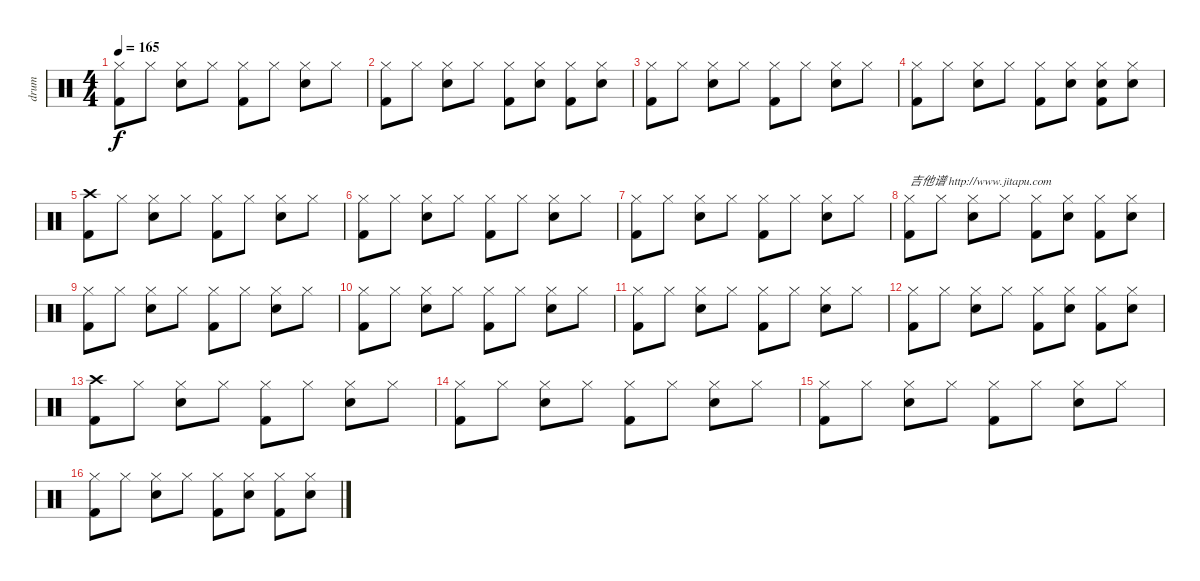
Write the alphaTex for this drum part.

\track ("drum" "drum") {instrument percussion}
\staff {score}
\articulation defaults
\ts (4 4)
\tempo 165
\clef neutral
\ks c
("Hi-Hat (closed)" "Kick (hit) 2").8{dy f} "Hi-Hat (closed)".8 ("Hi-Hat (closed)" "Snare (hit) 2").8 "Hi-Hat (closed)".8 ("Hi-Hat (closed)" "Kick (hit) 2").8 "Hi-Hat (closed)".8 ("Hi-Hat (closed)" "Snare (hit) 2").8 "Hi-Hat (closed)".8 |
("Hi-Hat (closed)" "Kick (hit) 2").8 "Hi-Hat (closed)".8 ("Hi-Hat (closed)" "Snare (hit) 2").8 "Hi-Hat (closed)".8 ("Hi-Hat (closed)" "Kick (hit) 2").8 ("Hi-Hat (closed)" "Snare (hit) 2").8 ("Hi-Hat (closed)" "Kick (hit) 2").8 ("Hi-Hat (closed)" "Snare (hit) 2").8 |
("Hi-Hat (closed)" "Kick (hit) 2").8 "Hi-Hat (closed)".8 ("Hi-Hat (closed)" "Snare (hit) 2").8 "Hi-Hat (closed)".8 ("Hi-Hat (closed)" "Kick (hit) 2").8 "Hi-Hat (closed)".8 ("Hi-Hat (closed)" "Snare (hit) 2").8 "Hi-Hat (closed)".8 |
("Hi-Hat (closed)" "Kick (hit) 2").8 "Hi-Hat (closed)".8 ("Hi-Hat (closed)" "Snare (hit) 2").8 "Hi-Hat (closed)".8 ("Hi-Hat (closed)" "Kick (hit) 2").8 ("Hi-Hat (closed)" "Snare (hit) 2").8 ("Hi-Hat (closed)" "Snare (hit) 2" "Kick (hit) 2").8 ("Hi-Hat (closed)" "Snare (hit) 2").8 |
("Crash high (hit)" "Kick (hit) 2").8 "Hi-Hat (closed)".8 ("Hi-Hat (closed)" "Snare (hit) 2").8 "Hi-Hat (closed)".8 ("Hi-Hat (closed)" "Kick (hit) 2").8 "Hi-Hat (closed)".8 ("Hi-Hat (closed)" "Snare (hit) 2").8 "Hi-Hat (closed)".8 |
("Hi-Hat (closed)" "Kick (hit) 2").8 "Hi-Hat (closed)".8 ("Hi-Hat (closed)" "Snare (hit) 2").8 "Hi-Hat (closed)".8 ("Hi-Hat (closed)" "Kick (hit) 2").8 "Hi-Hat (closed)".8 ("Hi-Hat (closed)" "Snare (hit) 2").8 "Hi-Hat (closed)".8 |
("Hi-Hat (closed)" "Kick (hit) 2").8 "Hi-Hat (closed)".8 ("Hi-Hat (closed)" "Snare (hit) 2").8 "Hi-Hat (closed)".8 ("Hi-Hat (closed)" "Kick (hit) 2").8 "Hi-Hat (closed)".8 ("Hi-Hat (closed)" "Snare (hit) 2").8 "Hi-Hat (closed)".8 |
("Hi-Hat (closed)" "Kick (hit) 2").8{txt "吉他谱 http://www.jitapu.com"} "Hi-Hat (closed)".8 ("Hi-Hat (closed)" "Snare (hit) 2").8 "Hi-Hat (closed)".8 ("Hi-Hat (closed)" "Kick (hit) 2").8 ("Hi-Hat (closed)" "Snare (hit) 2").8 ("Hi-Hat (closed)" "Kick (hit) 2").8 ("Hi-Hat (closed)" "Snare (hit) 2").8 |
("Hi-Hat (closed)" "Kick (hit) 2").8 "Hi-Hat (closed)".8 ("Hi-Hat (closed)" "Snare (hit) 2").8 "Hi-Hat (closed)".8 ("Hi-Hat (closed)" "Kick (hit) 2").8 "Hi-Hat (closed)".8 ("Hi-Hat (closed)" "Snare (hit) 2").8 "Hi-Hat (closed)".8 |
("Hi-Hat (closed)" "Kick (hit) 2").8 "Hi-Hat (closed)".8 ("Hi-Hat (closed)" "Snare (hit) 2").8 "Hi-Hat (closed)".8 ("Hi-Hat (closed)" "Kick (hit) 2").8 "Hi-Hat (closed)".8 ("Hi-Hat (closed)" "Snare (hit) 2").8 "Hi-Hat (closed)".8 |
("Hi-Hat (closed)" "Kick (hit) 2").8 "Hi-Hat (closed)".8 ("Hi-Hat (closed)" "Snare (hit) 2").8 "Hi-Hat (closed)".8 ("Hi-Hat (closed)" "Kick (hit) 2").8 "Hi-Hat (closed)".8 ("Hi-Hat (closed)" "Snare (hit) 2").8 "Hi-Hat (closed)".8 |
("Hi-Hat (closed)" "Kick (hit) 2").8 "Hi-Hat (closed)".8 ("Hi-Hat (closed)" "Snare (hit) 2").8 "Hi-Hat (closed)".8 ("Hi-Hat (closed)" "Kick (hit) 2").8 ("Hi-Hat (closed)" "Snare (hit) 2").8 ("Hi-Hat (closed)" "Kick (hit) 2").8 ("Hi-Hat (closed)" "Snare (hit) 2").8 |
("Crash high (hit)" "Kick (hit) 2").8 "Hi-Hat (closed)".8 ("Hi-Hat (closed)" "Snare (hit) 2").8 "Hi-Hat (closed)".8 ("Hi-Hat (closed)" "Kick (hit) 2").8 "Hi-Hat (closed)".8 ("Hi-Hat (closed)" "Snare (hit) 2").8 "Hi-Hat (closed)".8 |
("Hi-Hat (closed)" "Kick (hit) 2").8 "Hi-Hat (closed)".8 ("Hi-Hat (closed)" "Snare (hit) 2").8 "Hi-Hat (closed)".8 ("Hi-Hat (closed)" "Kick (hit) 2").8 "Hi-Hat (closed)".8 ("Hi-Hat (closed)" "Snare (hit) 2").8 "Hi-Hat (closed)".8 |
("Hi-Hat (closed)" "Kick (hit) 2").8 "Hi-Hat (closed)".8 ("Hi-Hat (closed)" "Snare (hit) 2").8 "Hi-Hat (closed)".8 ("Hi-Hat (closed)" "Kick (hit) 2").8 "Hi-Hat (closed)".8 ("Hi-Hat (closed)" "Snare (hit) 2").8 "Hi-Hat (closed)".8 |
("Hi-Hat (closed)" "Kick (hit) 2").8 "Hi-Hat (closed)".8 ("Hi-Hat (closed)" "Snare (hit) 2").8 "Hi-Hat (closed)".8 ("Hi-Hat (closed)" "Kick (hit) 2").8 ("Hi-Hat (closed)" "Snare (hit) 2").8 ("Hi-Hat (closed)" "Kick (hit) 2").8 ("Hi-Hat (closed)" "Snare (hit) 2").8
